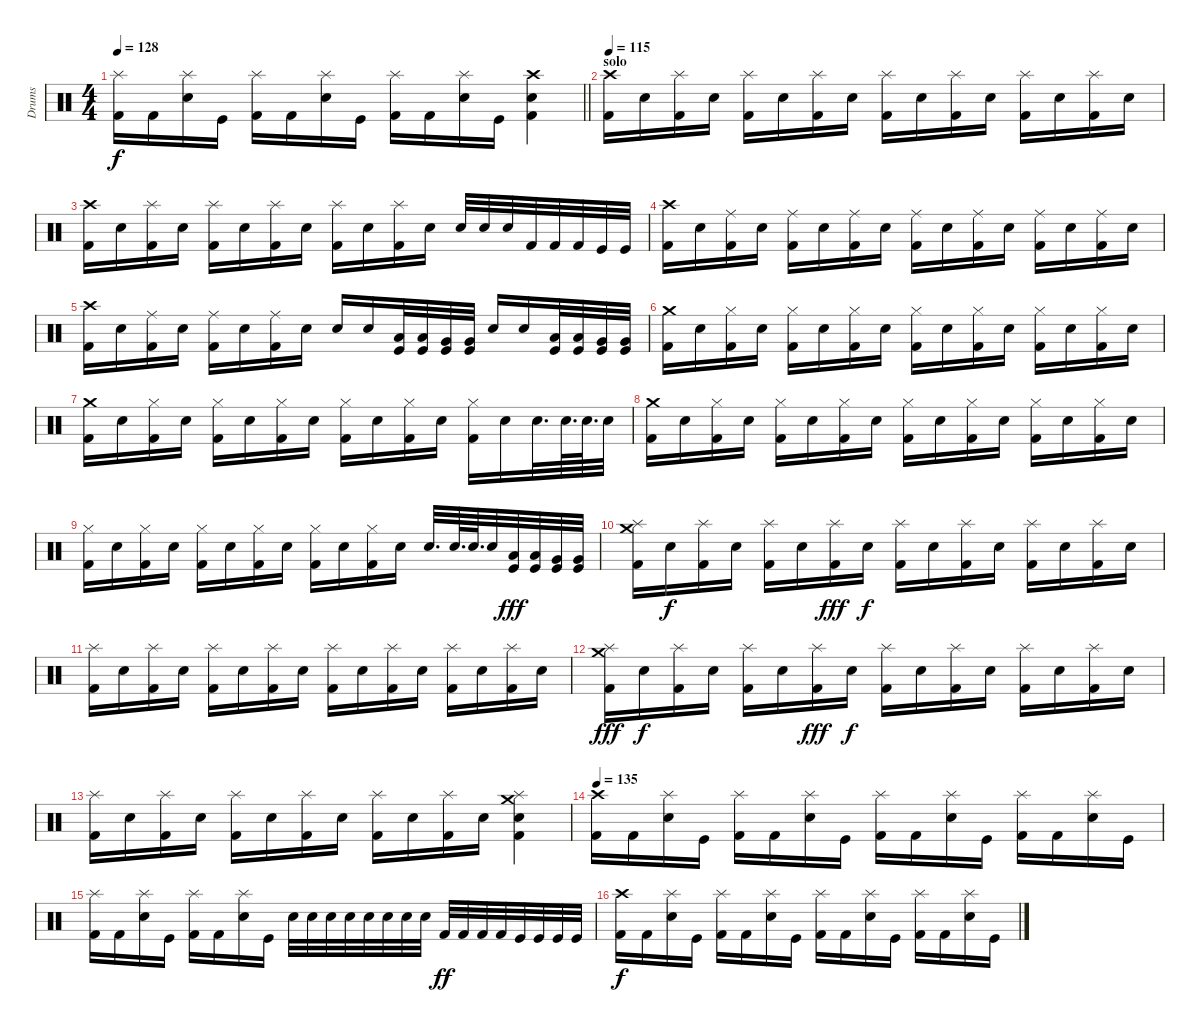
\track ("Drums" "Drums") {instrument percussion}
\staff {score}
\articulation defaults
\ts (4 4)
\tempo 128
\clef neutral
\barLineRight lightlight
\ks c
("Splash (hit)" "Kick (hit) 2").16{dy f} "Kick (hit) 2".16 ("Splash (hit)" "Electric Snare (hit)").16 "Kick (hit)".16 ("Splash (hit)" "Kick (hit) 2").16 "Kick (hit) 2".16 ("Splash (hit)" "Electric Snare (hit)").16 "Kick (hit)".16 ("Splash (hit)" "Kick (hit) 2").16 "Kick (hit) 2".16 ("Splash (hit)" "Electric Snare (hit)").16 "Kick (hit)".16 ("Crash high (hit)" "Electric Snare (hit)" "Kick (hit) 2").4 |
\section ("" "solo")
\tempo 115
("Crash high (hit)" "Kick (hit) 2").16 "Electric Snare (hit)".16 ("Splash (hit)" "Kick (hit) 2").16 "Electric Snare (hit)".16 ("Splash (hit)" "Kick (hit) 2").16 "Electric Snare (hit)".16 ("Splash (hit)" "Kick (hit) 2").16 "Electric Snare (hit)".16 ("Splash (hit)" "Kick (hit) 2").16 "Electric Snare (hit)".16 ("Splash (hit)" "Kick (hit) 2").16 "Electric Snare (hit)".16 ("Splash (hit)" "Kick (hit) 2").16 "Electric Snare (hit)".16 ("Splash (hit)" "Kick (hit) 2").16 "Electric Snare (hit)".16 |
("Crash high (hit)" "Kick (hit) 2").16 "Electric Snare (hit)".16 ("Splash (hit)" "Kick (hit) 2").16 "Electric Snare (hit)".16 ("Splash (hit)" "Kick (hit) 2").16 "Electric Snare (hit)".16 ("Splash (hit)" "Kick (hit) 2").16 "Electric Snare (hit)".16 ("Splash (hit)" "Kick (hit) 2").16 "Electric Snare (hit)".16 ("Splash (hit)" "Kick (hit) 2").16 "Electric Snare (hit)".16 "Electric Snare (hit)".32 "Electric Snare (hit)".32 "Electric Snare (hit)".32 "Kick (hit) 2".32 "Kick (hit) 2".32 "Kick (hit) 2".32 "Kick (hit)".32 "Kick (hit)".32 |
("Crash high (hit)" "Kick (hit) 2").16 "Electric Snare (hit)".16 ("Ride (middle)" "Kick (hit) 2").16 "Electric Snare (hit)".16 ("Ride (middle)" "Kick (hit) 2").16 "Electric Snare (hit)".16 ("Ride (middle)" "Kick (hit) 2").16 "Electric Snare (hit)".16 ("Ride (middle)" "Kick (hit) 2").16 "Electric Snare (hit)".16 ("Ride (middle)" "Kick (hit) 2").16 "Electric Snare (hit)".16 ("Ride (middle)" "Kick (hit) 2").16 "Electric Snare (hit)".16 ("Ride (middle)" "Kick (hit) 2").16 "Electric Snare (hit)".16 |
("Crash high (hit)" "Kick (hit) 2").16 "Electric Snare (hit)".16 ("Ride (middle)" "Kick (hit) 2").16 "Electric Snare (hit)".16 ("Ride (middle)" "Kick (hit) 2").16 "Electric Snare (hit)".16 ("Ride (middle)" "Kick (hit) 2").16 "Electric Snare (hit)".16 "Snare (hit) 2".16 "Snare (hit) 2".16 ("Low Tom (hit)" "Kick (hit)").32 ("Low Tom (hit)" "Kick (hit)").32 ("Very Low Tom (hit)" "Kick (hit)").32 ("Very Low Tom (hit)" "Kick (hit)").32 "Snare (hit) 2".16 "Snare (hit) 2".16 ("Low Tom (hit)" "Kick (hit)").32 ("Low Tom (hit)" "Kick (hit)").32 ("Very Low Tom (hit)" "Kick (hit)").32 ("Very Low Tom (hit)" "Kick (hit)").32 |
("Crash medium (hit)" "Kick (hit) 2").16 "Electric Snare (hit)".16 ("Hi-Hat (closed)" "Kick (hit) 2").16 "Electric Snare (hit)".16 ("Hi-Hat (closed)" "Kick (hit) 2").16 "Electric Snare (hit)".16 ("Hi-Hat (closed)" "Kick (hit) 2").16 "Electric Snare (hit)".16 ("Hi-Hat (closed)" "Kick (hit) 2").16 "Electric Snare (hit)".16 ("Hi-Hat (closed)" "Kick (hit) 2").16 "Electric Snare (hit)".16 ("Hi-Hat (closed)" "Kick (hit) 2").16 "Electric Snare (hit)".16 ("Hi-Hat (closed)" "Kick (hit) 2").16 "Electric Snare (hit)".16 |
("Crash medium (hit)" "Kick (hit) 2").16 "Electric Snare (hit)".16 ("Hi-Hat (closed)" "Kick (hit) 2").16 "Electric Snare (hit)".16 ("Hi-Hat (closed)" "Kick (hit) 2").16 "Electric Snare (hit)".16 ("Hi-Hat (closed)" "Kick (hit) 2").16 "Electric Snare (hit)".16 ("Hi-Hat (closed)" "Kick (hit) 2").16 "Electric Snare (hit)".16 ("Hi-Hat (closed)" "Kick (hit) 2").16 "Electric Snare (hit)".16 ("Hi-Hat (closed)" "Kick (hit) 2").16 "Electric Snare (hit)".16 "Electric Snare (hit)".32{d} "Electric Snare (hit)".64{d} "Electric Snare (hit)".64{d} "Electric Snare (hit)".32 |
("Crash medium (hit)" "Kick (hit) 2").16 "Electric Snare (hit)".16 ("Hi-Hat (closed)" "Kick (hit) 2").16 "Electric Snare (hit)".16 ("Hi-Hat (closed)" "Kick (hit) 2").16 "Electric Snare (hit)".16 ("Hi-Hat (closed)" "Kick (hit) 2").16 "Electric Snare (hit)".16 ("Hi-Hat (closed)" "Kick (hit) 2").16 "Electric Snare (hit)".16 ("Hi-Hat (closed)" "Kick (hit) 2").16 "Electric Snare (hit)".16 ("Hi-Hat (closed)" "Kick (hit) 2").16 "Electric Snare (hit)".16 ("Hi-Hat (closed)" "Kick (hit) 2").16 "Electric Snare (hit)".16 |
("Hi-Hat (closed)" "Kick (hit) 2").16 "Electric Snare (hit)".16 ("Hi-Hat (closed)" "Kick (hit) 2").16 "Electric Snare (hit)".16 ("Hi-Hat (closed)" "Kick (hit) 2").16 "Electric Snare (hit)".16 ("Hi-Hat (closed)" "Kick (hit) 2").16 "Electric Snare (hit)".16 ("Hi-Hat (closed)" "Kick (hit) 2").16 "Electric Snare (hit)".16 ("Hi-Hat (closed)" "Kick (hit) 2").16 "Electric Snare (hit)".16 "Electric Snare (hit)".32{d} "Electric Snare (hit)".64{d} "Electric Snare (hit)".64{d} "Electric Snare (hit)".32 ("Low Tom (hit)" "Kick (hit)").32{dy fff} ("Low Tom (hit)" "Kick (hit)").32 ("Very Low Tom (hit)" "Kick (hit)").32 ("Very Low Tom (hit)" "Kick (hit)").32 |
("Splash (hit)" "Crash medium (hit)" "Kick (hit) 2").16 "Electric Snare (hit)".16{dy f} ("Splash (hit)" "Kick (hit) 2").16 "Electric Snare (hit)".16 ("Splash (hit)" "Kick (hit) 2").16 "Electric Snare (hit)".16 ("Splash (hit)" "Kick (hit) 2").16{dy fff} "Electric Snare (hit)".16{dy f} ("Splash (hit)" "Kick (hit) 2").16 "Electric Snare (hit)".16 ("Splash (hit)" "Kick (hit) 2").16 "Electric Snare (hit)".16 ("Splash (hit)" "Kick (hit) 2").16 "Electric Snare (hit)".16 ("Splash (hit)" "Kick (hit) 2").16 "Electric Snare (hit)".16 |
("Splash (hit)" "Kick (hit) 2").16 "Electric Snare (hit)".16 ("Splash (hit)" "Kick (hit) 2").16 "Electric Snare (hit)".16 ("Splash (hit)" "Kick (hit) 2").16 "Electric Snare (hit)".16 ("Splash (hit)" "Kick (hit) 2").16 "Electric Snare (hit)".16 ("Splash (hit)" "Kick (hit) 2").16 "Electric Snare (hit)".16 ("Splash (hit)" "Kick (hit) 2").16 "Electric Snare (hit)".16 ("Splash (hit)" "Kick (hit) 2").16 "Electric Snare (hit)".16 ("Splash (hit)" "Kick (hit) 2").16 "Electric Snare (hit)".16 |
("Splash (hit)" "Crash medium (hit)" "Kick (hit) 2").16{dy fff} "Electric Snare (hit)".16{dy f} ("Splash (hit)" "Kick (hit) 2").16 "Electric Snare (hit)".16 ("Splash (hit)" "Kick (hit) 2").16 "Electric Snare (hit)".16 ("Splash (hit)" "Kick (hit) 2").16{dy fff} "Electric Snare (hit)".16{dy f} ("Splash (hit)" "Kick (hit) 2").16 "Electric Snare (hit)".16 ("Splash (hit)" "Kick (hit) 2").16 "Electric Snare (hit)".16 ("Splash (hit)" "Kick (hit) 2").16 "Electric Snare (hit)".16 ("Splash (hit)" "Kick (hit) 2").16 "Electric Snare (hit)".16 |
("Splash (hit)" "Kick (hit) 2").16 "Electric Snare (hit)".16 ("Splash (hit)" "Kick (hit) 2").16 "Electric Snare (hit)".16 ("Splash (hit)" "Kick (hit) 2").16 "Electric Snare (hit)".16 ("Splash (hit)" "Kick (hit) 2").16 "Electric Snare (hit)".16 ("Splash (hit)" "Kick (hit) 2").16 "Electric Snare (hit)".16 ("Splash (hit)" "Kick (hit) 2").16 "Electric Snare (hit)".16 ("Splash (hit)" "Crash medium (hit)" "Electric Snare (hit)" "Kick (hit) 2").4 |
\tempo 128
\tempo 135
("Crash high (hit)" "Kick (hit) 2").16 "Kick (hit) 2".16 ("Splash (hit)" "Electric Snare (hit)").16 "Kick (hit)".16 ("Splash (hit)" "Kick (hit) 2").16 "Kick (hit) 2".16 ("Splash (hit)" "Electric Snare (hit)").16 "Kick (hit)".16 ("Splash (hit)" "Kick (hit) 2").16 "Kick (hit) 2".16 ("Splash (hit)" "Electric Snare (hit)").16 "Kick (hit)".16 ("Splash (hit)" "Kick (hit) 2").16 "Kick (hit) 2".16 ("Splash (hit)" "Electric Snare (hit)").16 "Kick (hit)".16 |
("Splash (hit)" "Kick (hit) 2").16 "Kick (hit) 2".16 ("Splash (hit)" "Electric Snare (hit)").16 "Kick (hit)".16 ("Splash (hit)" "Kick (hit) 2").16 "Kick (hit) 2".16 ("Splash (hit)" "Electric Snare (hit)").16 "Kick (hit)".16 "Electric Snare (hit)".32 "Electric Snare (hit)".32 "Electric Snare (hit)".32 "Electric Snare (hit)".32 "Snare (hit) 2".32 "Snare (hit) 2".32 "Snare (hit) 2".32 "Snare (hit) 2".32 "Kick (hit) 2".32{dy ff} "Kick (hit) 2".32 "Kick (hit) 2".32 "Kick (hit) 2".32 "Kick (hit)".32 "Kick (hit)".32 "Kick (hit)".32 "Kick (hit)".32 |
("Crash high (hit)" "Kick (hit) 2").16{dy f} "Kick (hit) 2".16 ("Splash (hit)" "Electric Snare (hit)").16 "Kick (hit)".16 ("Splash (hit)" "Kick (hit) 2").16 "Kick (hit) 2".16 ("Splash (hit)" "Electric Snare (hit)").16 "Kick (hit)".16 ("Splash (hit)" "Kick (hit) 2").16 "Kick (hit) 2".16 ("Splash (hit)" "Electric Snare (hit)").16 "Kick (hit)".16 ("Splash (hit)" "Kick (hit) 2").16 "Kick (hit) 2".16 ("Splash (hit)" "Electric Snare (hit)").16 "Kick (hit)".16
